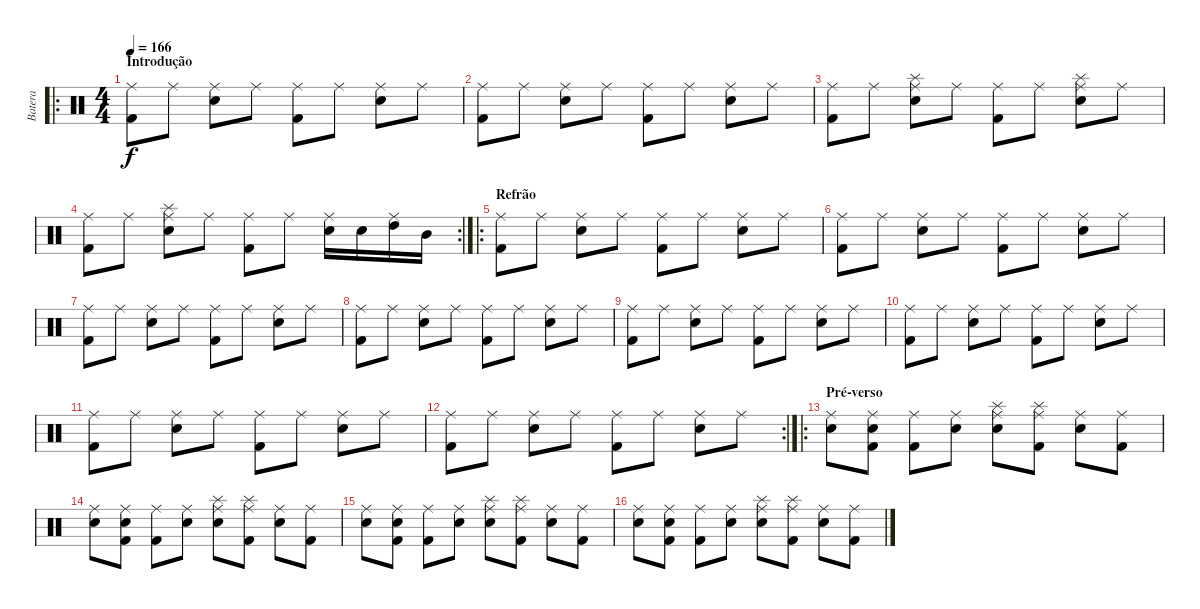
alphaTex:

\track ("Batera" "Batera") {instrument percussion}
\staff {score}
\articulation defaults
\ro
\ts (4 4)
\section ("" "Introdução")
\tempo 166
\clef neutral
\ks c
("Ride (middle)" "Kick (hit) 2").8{dy f} "Ride (middle)".8 ("Ride (middle)" "Snare (hit) 2").8 "Ride (middle)".8 ("Ride (middle)" "Kick (hit) 2").8 "Ride (middle)".8 ("Ride (middle)" "Snare (hit) 2").8 "Ride (middle)".8 |
("Ride (middle)" "Kick (hit) 2").8 "Ride (middle)".8 ("Ride (middle)" "Snare (hit) 2").8 "Ride (middle)".8 ("Ride (middle)" "Kick (hit) 2").8 "Ride (middle)".8 ("Ride (middle)" "Snare (hit) 2").8 "Ride (middle)".8 |
("Ride (middle)" "Kick (hit) 2").8 "Ride (middle)".8 ("Ride (middle)" "Splash (hit)" "Snare (hit) 2").8 "Ride (middle)".8 ("Ride (middle)" "Kick (hit) 2").8 "Ride (middle)".8 ("Ride (middle)" "Splash (hit)" "Snare (hit) 2").8 "Ride (middle)".8 |
\rc 2
("Ride (middle)" "Kick (hit) 2").8 "Ride (middle)".8 ("Ride (middle)" "Splash (hit)" "Snare (hit) 2").8 "Ride (middle)".8 ("Ride (middle)" "Kick (hit) 2").8 "Ride (middle)".8 ("Ride (middle)" "Snare (hit) 2").16 "Snare (hit) 2".16 ("Ride (middle)" "High Tom (hit)").16 "Mid Tom (hit)".16 |
\ro
\section ("" "Refrão")
("Ride (middle)" "Kick (hit) 2").8 "Ride (middle)".8 ("Ride (middle)" "Snare (hit) 2").8 "Ride (middle)".8 ("Ride (middle)" "Kick (hit) 2").8 "Ride (middle)".8 ("Ride (middle)" "Snare (hit) 2").8 "Ride (middle)".8 |
("Ride (middle)" "Kick (hit) 2").8 "Ride (middle)".8 ("Ride (middle)" "Snare (hit) 2").8 "Ride (middle)".8 ("Ride (middle)" "Kick (hit) 2").8 "Ride (middle)".8 ("Ride (middle)" "Snare (hit) 2").8 "Ride (middle)".8 |
("Ride (middle)" "Kick (hit) 2").8 "Ride (middle)".8 ("Ride (middle)" "Snare (hit) 2").8 "Ride (middle)".8 ("Ride (middle)" "Kick (hit) 2").8 "Ride (middle)".8 ("Ride (middle)" "Snare (hit) 2").8 "Ride (middle)".8 |
("Ride (middle)" "Kick (hit) 2").8 "Ride (middle)".8 ("Ride (middle)" "Snare (hit) 2").8 "Ride (middle)".8 ("Ride (middle)" "Kick (hit) 2").8 "Ride (middle)".8 ("Ride (middle)" "Snare (hit) 2").8 "Ride (middle)".8 |
("Ride (middle)" "Kick (hit) 2").8 "Ride (middle)".8 ("Ride (middle)" "Snare (hit) 2").8 "Ride (middle)".8 ("Ride (middle)" "Kick (hit) 2").8 "Ride (middle)".8 ("Ride (middle)" "Snare (hit) 2").8 "Ride (middle)".8 |
("Ride (middle)" "Kick (hit) 2").8 "Ride (middle)".8 ("Ride (middle)" "Snare (hit) 2").8 "Ride (middle)".8 ("Ride (middle)" "Kick (hit) 2").8 "Ride (middle)".8 ("Ride (middle)" "Snare (hit) 2").8 "Ride (middle)".8 |
("Ride (middle)" "Kick (hit) 2").8 "Ride (middle)".8 ("Ride (middle)" "Snare (hit) 2").8 "Ride (middle)".8 ("Ride (middle)" "Kick (hit) 2").8 "Ride (middle)".8 ("Ride (middle)" "Snare (hit) 2").8 "Ride (middle)".8 |
\rc 2
("Ride (middle)" "Kick (hit) 2").8 "Ride (middle)".8 ("Ride (middle)" "Snare (hit) 2").8 "Ride (middle)".8 ("Ride (middle)" "Kick (hit) 2").8 "Ride (middle)".8 ("Ride (middle)" "Snare (hit) 2").8 "Ride (middle)".8 |
\ro
\section ("" "Pré-verso")
("Ride (middle)" "Snare (hit) 2").8 ("Ride (middle)" "Kick (hit) 2" "Snare (hit) 2").8 ("Ride (middle)" "Kick (hit) 2").8 ("Ride (middle)" "Snare (hit) 2").8 ("Ride (middle)" "Splash (hit)" "Snare (hit) 2").8 ("Ride (middle)" "Splash (hit)" "Kick (hit) 2").8 ("Ride (middle)" "Snare (hit) 2").8 ("Ride (middle)" "Kick (hit) 2").8 |
("Ride (middle)" "Snare (hit) 2").8 ("Ride (middle)" "Kick (hit) 2" "Snare (hit) 2").8 ("Ride (middle)" "Kick (hit) 2").8 ("Ride (middle)" "Snare (hit) 2").8 ("Ride (middle)" "Splash (hit)" "Snare (hit) 2").8 ("Ride (middle)" "Splash (hit)" "Kick (hit) 2").8 ("Ride (middle)" "Snare (hit) 2").8 ("Ride (middle)" "Kick (hit) 2").8 |
("Ride (middle)" "Snare (hit) 2").8 ("Ride (middle)" "Kick (hit) 2" "Snare (hit) 2").8 ("Ride (middle)" "Kick (hit) 2").8 ("Ride (middle)" "Snare (hit) 2").8 ("Ride (middle)" "Splash (hit)" "Snare (hit) 2").8 ("Ride (middle)" "Splash (hit)" "Kick (hit) 2").8 ("Ride (middle)" "Snare (hit) 2").8 ("Ride (middle)" "Kick (hit) 2").8 |
("Ride (middle)" "Snare (hit) 2").8 ("Ride (middle)" "Kick (hit) 2" "Snare (hit) 2").8 ("Ride (middle)" "Kick (hit) 2").8 ("Ride (middle)" "Snare (hit) 2").8 ("Ride (middle)" "Splash (hit)" "Snare (hit) 2").8 ("Ride (middle)" "Splash (hit)" "Kick (hit) 2").8 ("Ride (middle)" "Snare (hit) 2").8 ("Ride (middle)" "Kick (hit) 2").8
